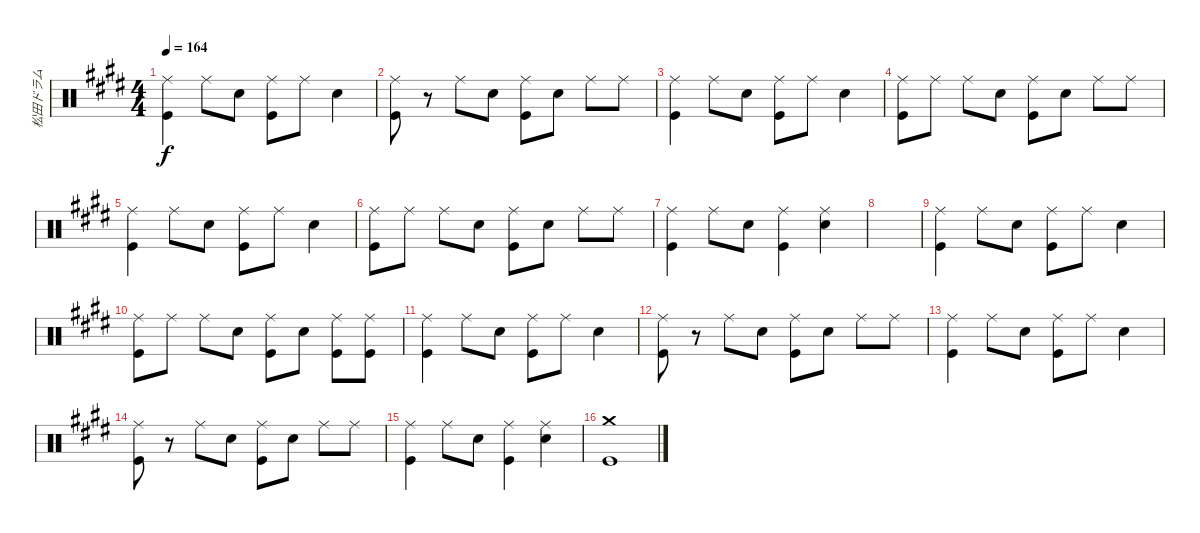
\track ("松田ドラム" "松田ドラム") {instrument percussion}
\staff {score}
\articulation defaults
\ts (4 4)
\tempo 164
\clef neutral
\ks e
("Ride (middle)" "Kick (hit)").4{dy f} "Ride (middle)".8 "Snare (hit) 2".8 ("Ride (middle)" "Kick (hit)").8 "Ride (middle)".8 "Snare (hit) 2".4 |
("Ride (middle)" "Kick (hit)").8 r.8 "Ride (middle)".8 "Snare (hit) 2".8 ("Ride (middle)" "Kick (hit)").8 "Snare (hit) 2".8 "Ride (middle)".8 "Ride (middle)".8 |
("Ride (middle)" "Kick (hit)").4 "Ride (middle)".8 "Snare (hit) 2".8 ("Ride (middle)" "Kick (hit)").8 "Ride (middle)".8 "Snare (hit) 2".4 |
("Ride (middle)" "Kick (hit)").8 "Ride (middle)".8 "Ride (middle)".8 "Snare (hit) 2".8 ("Ride (middle)" "Kick (hit)").8 "Snare (hit) 2".8 "Ride (middle)".8 "Ride (middle)".8 |
("Ride (middle)" "Kick (hit)").4 "Ride (middle)".8 "Snare (hit) 2".8 ("Ride (middle)" "Kick (hit)").8 "Ride (middle)".8 "Snare (hit) 2".4 |
("Ride (middle)" "Kick (hit)").8 "Ride (middle)".8 "Ride (middle)".8 "Snare (hit) 2".8 ("Ride (middle)" "Kick (hit)").8 "Snare (hit) 2".8 "Ride (middle)".8 "Ride (middle)".8 |
("Ride (middle)" "Kick (hit)").4 "Ride (middle)".8 "Snare (hit) 2".8 ("Ride (middle)" "Kick (hit)").4 ("Ride (middle)" "Snare (hit) 2").4 |
|
("Ride (middle)" "Kick (hit)").4 "Ride (middle)".8 "Snare (hit) 2".8 ("Ride (middle)" "Kick (hit)").8 "Ride (middle)".8 "Snare (hit) 2".4 |
("Ride (middle)" "Kick (hit)").8 "Ride (middle)".8 "Ride (middle)".8 "Snare (hit) 2".8 ("Ride (middle)" "Kick (hit)").8 "Snare (hit) 2".8 ("Ride (middle)" "Kick (hit)").8 ("Ride (middle)" "Kick (hit)").8 |
("Ride (middle)" "Kick (hit)").4 "Ride (middle)".8 "Snare (hit) 2".8 ("Ride (middle)" "Kick (hit)").8 "Ride (middle)".8 "Snare (hit) 2".4 |
("Ride (middle)" "Kick (hit)").8 r.8 "Ride (middle)".8 "Snare (hit) 2".8 ("Ride (middle)" "Kick (hit)").8 "Snare (hit) 2".8 "Ride (middle)".8 "Ride (middle)".8 |
("Ride (middle)" "Kick (hit)").4 "Ride (middle)".8 "Snare (hit) 2".8 ("Ride (middle)" "Kick (hit)").8 "Ride (middle)".8 "Snare (hit) 2".4 |
("Ride (middle)" "Kick (hit)").8 r.8 "Ride (middle)".8 "Snare (hit) 2".8 ("Ride (middle)" "Kick (hit)").8 "Snare (hit) 2".8 "Ride (middle)".8 "Ride (middle)".8 |
("Ride (middle)" "Kick (hit)").4 "Ride (middle)".8 "Snare (hit) 2".8 ("Ride (middle)" "Kick (hit)").4 ("Ride (middle)" "Snare (hit) 2").4 |
("Crash medium (hit)" "Kick (hit)").1
